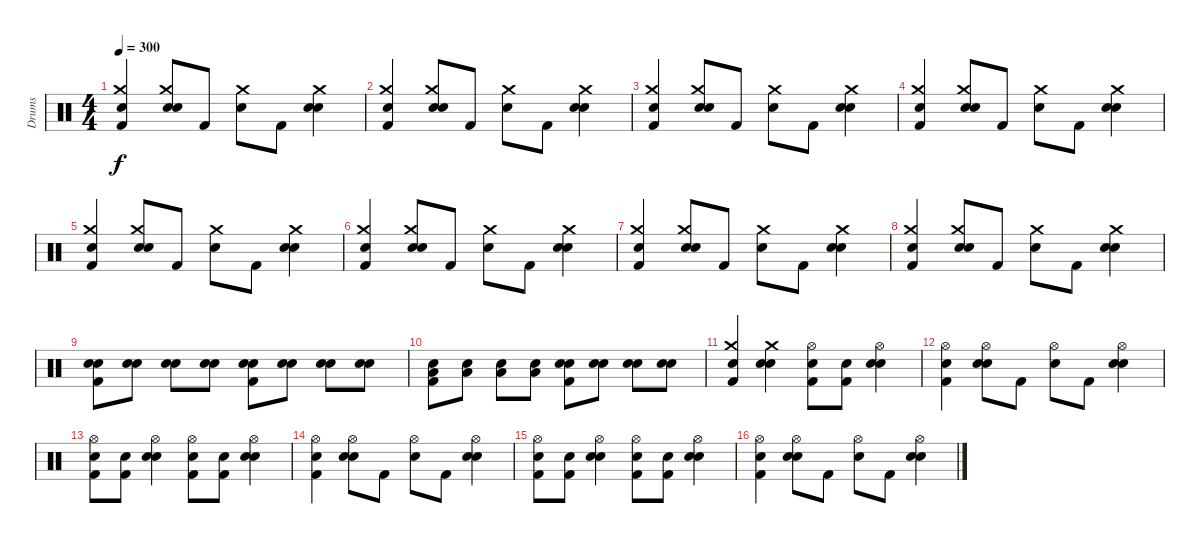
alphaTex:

\track ("Drums" "Drums") {instrument percussion}
\staff {score}
\articulation defaults
\ts (4 4)
\tempo 300
\clef neutral
\ks c
("Snare (hit)" "Crash medium (hit)" "Kick (hit) 2").4{dy f} ("Snare (hit)" "Crash medium (hit)" "Electric Snare (hit)").8 "Kick (hit) 2".8 ("Snare (hit)" "Crash medium (hit)").8 "Kick (hit) 2".8 ("Snare (hit)" "Crash medium (hit)" "Electric Snare (hit)").4 |
("Snare (hit)" "Crash medium (hit)" "Kick (hit) 2").4 ("Snare (hit)" "Crash medium (hit)" "Electric Snare (hit)").8 "Kick (hit) 2".8 ("Snare (hit)" "Crash medium (hit)").8 "Kick (hit) 2".8 ("Snare (hit)" "Crash medium (hit)" "Electric Snare (hit)").4 |
("Snare (hit)" "Crash medium (hit)" "Kick (hit) 2").4 ("Snare (hit)" "Crash medium (hit)" "Electric Snare (hit)").8 "Kick (hit) 2".8 ("Snare (hit)" "Crash medium (hit)").8 "Kick (hit) 2".8 ("Snare (hit)" "Crash medium (hit)" "Electric Snare (hit)").4 |
("Snare (hit)" "Crash medium (hit)" "Kick (hit) 2").4 ("Snare (hit)" "Crash medium (hit)" "Electric Snare (hit)").8 "Kick (hit) 2".8 ("Snare (hit)" "Crash medium (hit)").8 "Kick (hit) 2".8 ("Snare (hit)" "Crash medium (hit)" "Electric Snare (hit)").4 |
("Snare (hit)" "Crash medium (hit)" "Kick (hit) 2").4 ("Snare (hit)" "Crash medium (hit)" "Electric Snare (hit)").8 "Kick (hit) 2".8 ("Snare (hit)" "Crash medium (hit)").8 "Kick (hit) 2".8 ("Snare (hit)" "Crash medium (hit)" "Electric Snare (hit)").4 |
("Snare (hit)" "Crash medium (hit)" "Kick (hit) 2").4 ("Snare (hit)" "Crash medium (hit)" "Electric Snare (hit)").8 "Kick (hit) 2".8 ("Snare (hit)" "Crash medium (hit)").8 "Kick (hit) 2".8 ("Snare (hit)" "Crash medium (hit)" "Electric Snare (hit)").4 |
("Snare (hit)" "Crash medium (hit)" "Kick (hit) 2").4 ("Snare (hit)" "Crash medium (hit)" "Electric Snare (hit)").8 "Kick (hit) 2".8 ("Snare (hit)" "Crash medium (hit)").8 "Kick (hit) 2".8 ("Snare (hit)" "Crash medium (hit)" "Electric Snare (hit)").4 |
("Snare (hit)" "Crash medium (hit)" "Kick (hit) 2").4 ("Snare (hit)" "Crash medium (hit)" "Electric Snare (hit)").8 "Kick (hit) 2".8 ("Snare (hit)" "Crash medium (hit)").8 "Kick (hit) 2".8 ("Snare (hit)" "Crash medium (hit)" "Electric Snare (hit)").4 |
("Snare (hit)" "Kick (hit) 2" "Electric Snare (hit)").8 ("Snare (hit)" "Electric Snare (hit)").8 ("Snare (hit)" "Electric Snare (hit)").8 ("Snare (hit)" "Electric Snare (hit)").8 ("Snare (hit)" "Kick (hit) 2" "Electric Snare (hit)").8 ("Snare (hit)" "Electric Snare (hit)").8 ("Snare (hit)" "Electric Snare (hit)").8 ("Snare (hit)" "Electric Snare (hit)").8 |
("Snare (hit)" "Kick (hit) 2" "Low Floor Tom (hit)").8 ("Snare (hit)" "Low Floor Tom (hit)").8 ("Snare (hit)" "Low Floor Tom (hit)").8 ("Snare (hit)" "Low Floor Tom (hit)").8 ("Snare (hit)" "Kick (hit) 2" "Electric Snare (hit)").8 ("Snare (hit)" "Electric Snare (hit)").8 ("Snare (hit)" "Electric Snare (hit)").8 ("Snare (hit)" "Electric Snare (hit)").8 |
("Snare (hit)" "Crash medium (hit)" "Kick (hit) 2").4 ("Snare (hit)" "Crash medium (hit)" "Electric Snare (hit)").4 ("Snare (hit)" "Hi-Hat (open)" "Kick (hit) 2").8 ("Snare (hit)" "Kick (hit) 2").8 ("Snare (hit)" "Hi-Hat (open)" "Electric Snare (hit)").4 |
("Snare (hit)" "Hi-Hat (open)" "Kick (hit) 2").4 ("Snare (hit)" "Hi-Hat (open)" "Electric Snare (hit)").8 "Kick (hit) 2".8 ("Snare (hit)" "Hi-Hat (open)").8 "Kick (hit) 2".8 ("Snare (hit)" "Hi-Hat (open)" "Electric Snare (hit)").4 |
("Snare (hit)" "Hi-Hat (open)" "Kick (hit) 2").8 ("Snare (hit)" "Kick (hit) 2").8 ("Snare (hit)" "Electric Snare (hit)" "Hi-Hat (open)").4 ("Snare (hit)" "Hi-Hat (open)" "Kick (hit) 2").8 ("Snare (hit)" "Kick (hit) 2").8 ("Snare (hit)" "Electric Snare (hit)" "Hi-Hat (open)").4 |
("Snare (hit)" "Hi-Hat (open)" "Kick (hit) 2").4 ("Snare (hit)" "Hi-Hat (open)" "Electric Snare (hit)").8 "Kick (hit) 2".8 ("Snare (hit)" "Hi-Hat (open)").8 "Kick (hit) 2".8 ("Snare (hit)" "Hi-Hat (open)" "Electric Snare (hit)").4 |
("Snare (hit)" "Hi-Hat (open)" "Kick (hit) 2").8 ("Snare (hit)" "Kick (hit) 2").8 ("Snare (hit)" "Electric Snare (hit)" "Hi-Hat (open)").4 ("Snare (hit)" "Hi-Hat (open)" "Kick (hit) 2").8 ("Snare (hit)" "Kick (hit) 2").8 ("Snare (hit)" "Electric Snare (hit)" "Hi-Hat (open)").4 |
("Snare (hit)" "Hi-Hat (open)" "Kick (hit) 2").4 ("Snare (hit)" "Hi-Hat (open)" "Electric Snare (hit)").8 "Kick (hit) 2".8 ("Snare (hit)" "Hi-Hat (open)").8 "Kick (hit) 2".8 ("Snare (hit)" "Hi-Hat (open)" "Electric Snare (hit)").4
